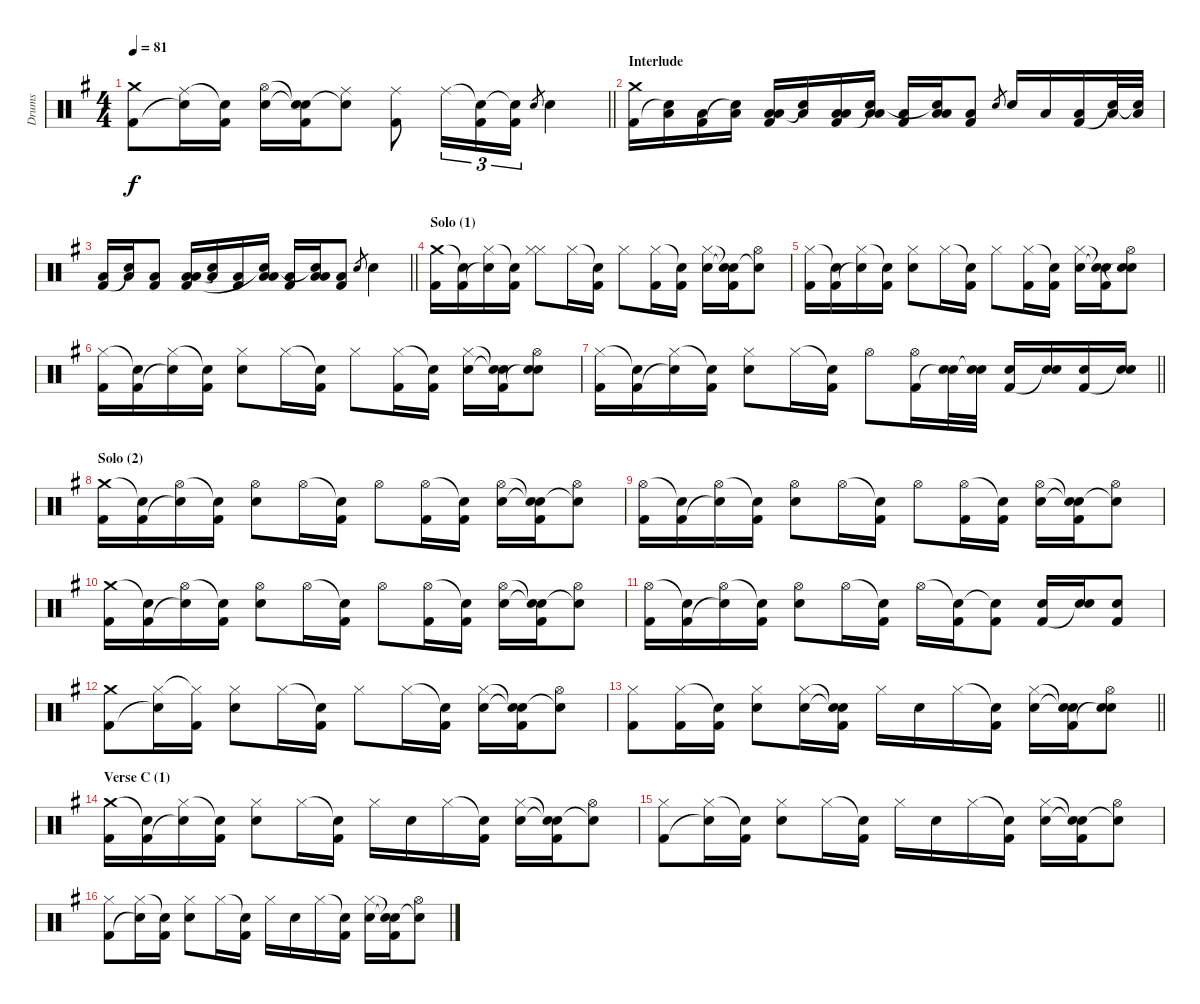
\track ("Drums" "Drums") {instrument percussion}
\staff {score}
\articulation defaults
\ts (4 4)
\tempo 81
\clef neutral
\barLineRight lightlight
\ks g
("Crash medium (hit)" "Kick (hit) 2").8{dy f} ("Ride (middle)" "Snare (hit)"{t}).16 ("Snare (hit)"{t} "Kick (hit) 2").16 ("Hi-Hat (open)" "Electric Snare (hit)").16 ("Snare (hit)"{t} "Snare (hit)"{t} "Kick (hit) 2").16 ("Ride (middle)" "Snare (hit)"{t}).8 ("Ride (middle)" "Kick (hit) 2").8 "Ride (middle)".16{tu (3 2)} ("Snare (hit)"{t} "Kick (hit) 2").16{tu (3 2)} ("Snare (hit)"{t} "Kick (hit) 2").16{tu (3 2)} "Electric Snare (hit)".8{gr} "Electric Snare (hit)".4 |
\section ("" "Interlude")
("Crash medium (hit)" "Kick (hit) 2").16 ("Low Floor Tom (hit)" "Snare (hit)"{t}).16 ("Low Floor Tom (hit)" "Kick (hit) 2").16 ("Low Floor Tom (hit)" "Snare (hit)"{t}).16 ("Low Tom (hit)" "Low Floor Tom (hit)" "Kick (hit) 2").16 ("Low Floor Tom (hit)" "Snare (hit)"{t}).16 ("Low Tom (hit)" "Low Floor Tom (hit)" "Kick (hit) 2").16 ("Low Tom (hit)" "Low Floor Tom (hit)" "Snare (hit)"{t}).16 ("Low Floor Tom (hit)" "Kick (hit) 2").16 ("Low Tom (hit)" "Low Floor Tom (hit)" "Snare (hit)"{t}).16 ("Low Floor Tom (hit)" "Kick (hit) 2").8 "Electric Snare (hit)".8{gr} "Electric Snare (hit)".16 "Low Floor Tom (hit)".16 ("Low Floor Tom (hit)" "Kick (hit) 2").16 ("Low Floor Tom (hit)" "Snare (hit)"{t}).32 ("Low Floor Tom (hit)" "Snare (hit)"{t}).32 |
\barLineRight lightlight
("Low Floor Tom (hit)" "Kick (hit) 2").16 ("Low Floor Tom (hit)" "Snare (hit)"{t}).16 ("Low Floor Tom (hit)" "Kick (hit) 2").8 ("Low Tom (hit)" "Low Floor Tom (hit)" "Kick (hit) 2").16 ("Low Floor Tom (hit)" "Snare (hit)"{t}).16 ("Low Floor Tom (hit)" "Kick (hit) 2").16 ("Low Tom (hit)" "Low Floor Tom (hit)" "Snare (hit)"{t}).16 ("Low Floor Tom (hit)" "Kick (hit) 2").16 ("Low Tom (hit)" "Low Floor Tom (hit)" "Snare (hit)"{t}).16 ("Low Floor Tom (hit)" "Kick (hit) 2").8 "Electric Snare (hit)".8{gr} "Electric Snare (hit)".4 |
\section ("" "Solo (1)")
("Crash medium (hit)" "Kick (hit) 2").16 ("Snare (hit)"{t} "Kick (hit) 2").16 ("Hi-Hat (closed)" "Snare (hit)"{t}).16 ("Snare (hit)"{t} "Kick (hit) 2").16 ("Hi-Hat (closed)" "Hi-Hat (closed)").8 "Hi-Hat (closed)".16 ("Snare (hit)"{t} "Kick (hit) 2").16 "Hi-Hat (closed)".8 ("Hi-Hat (closed)" "Kick (hit) 2").16 ("Snare (hit)"{t} "Kick (hit) 2").16 ("Hi-Hat (closed)" "Electric Snare (hit)").16 ("Snare (hit)"{t} "Snare (hit)"{t} "Kick (hit) 2").16 ("Hi-Hat (open)" "Snare (hit)"{t}).8 |
("Hi-Hat (closed)" "Kick (hit) 2").16 ("Snare (hit)"{t} "Kick (hit) 2").16 ("Hi-Hat (closed)" "Snare (hit)"{t}).16 ("Snare (hit)"{t} "Kick (hit) 2").16 ("Hi-Hat (closed)" "Electric Snare (hit)").8 "Hi-Hat (closed)".16 ("Snare (hit)"{t} "Kick (hit) 2").16 "Hi-Hat (closed)".8 ("Hi-Hat (closed)" "Kick (hit) 2").16 ("Snare (hit)"{t} "Kick (hit) 2").16 ("Hi-Hat (closed)" "Electric Snare (hit)").16 ("Snare (hit)"{t} "Snare (hit)"{t} "Kick (hit) 2").16 ("Hi-Hat (open)" "Electric Snare (hit)" "Snare (hit)"{t}).8 |
("Hi-Hat (closed)" "Kick (hit) 2").16 ("Snare (hit)"{t} "Kick (hit) 2").16 ("Hi-Hat (closed)" "Snare (hit)"{t}).16 ("Snare (hit)"{t} "Kick (hit) 2").16 ("Hi-Hat (closed)" "Electric Snare (hit)").8 "Hi-Hat (closed)".16 ("Snare (hit)"{t} "Kick (hit) 2").16 "Hi-Hat (closed)".8 ("Hi-Hat (closed)" "Kick (hit) 2").16 ("Snare (hit)"{t} "Kick (hit) 2").16 ("Hi-Hat (closed)" "Electric Snare (hit)").16 ("Snare (hit)"{t} "Snare (hit)"{t} "Kick (hit) 2").16 ("Hi-Hat (open)" "Electric Snare (hit)" "Snare (hit)"{t}).8 |
\barLineRight lightlight
("Hi-Hat (closed)" "Kick (hit) 2").16 ("Snare (hit)"{t} "Kick (hit) 2").16 ("Hi-Hat (closed)" "Snare (hit)"{t}).16 ("Snare (hit)"{t} "Kick (hit) 2").16 ("Hi-Hat (closed)" "Electric Snare (hit)").8 "Hi-Hat (closed)".16 ("Snare (hit)"{t} "Kick (hit) 2").16 "Hi-Hat (open)".8 ("Hi-Hat (open)" "Kick (hit) 2").16 ("Electric Snare (hit)" "Snare (hit)"{t}).32 ("Electric Snare (hit)" "Snare (hit)"{t}).32 ("Electric Snare (hit)" "Kick (hit) 2").16 ("Electric Snare (hit)" "Snare (hit)"{t}).16 ("Electric Snare (hit)" "Kick (hit) 2").16 ("Electric Snare (hit)" "Snare (hit)"{t}).16 |
\section ("" "Solo (2)")
("Crash medium (hit)" "Kick (hit) 2").16 ("Snare (hit)"{t} "Kick (hit) 2").16 ("Hi-Hat (open)" "Snare (hit)"{t}).16 ("Snare (hit)"{t} "Kick (hit) 2").16 ("Hi-Hat (open)" "Electric Snare (hit)").8 "Hi-Hat (open)".16 ("Snare (hit)"{t} "Kick (hit) 2").16 "Hi-Hat (open)".8 ("Hi-Hat (open)" "Kick (hit) 2").16 ("Snare (hit)"{t} "Kick (hit) 2").16 ("Hi-Hat (open)" "Electric Snare (hit)").16 ("Snare (hit)"{t} "Snare (hit)"{t} "Kick (hit) 2").16 ("Hi-Hat (open)" "Snare (hit)"{t}).8 |
("Hi-Hat (open)" "Kick (hit) 2").16 ("Snare (hit)"{t} "Kick (hit) 2").16 ("Hi-Hat (open)" "Snare (hit)"{t}).16 ("Snare (hit)"{t} "Kick (hit) 2").16 ("Hi-Hat (open)" "Electric Snare (hit)").8 "Hi-Hat (open)".16 ("Snare (hit)"{t} "Kick (hit) 2").16 "Hi-Hat (open)".8 ("Hi-Hat (open)" "Kick (hit) 2").16 ("Snare (hit)"{t} "Kick (hit) 2").16 ("Hi-Hat (open)" "Electric Snare (hit)").16 ("Snare (hit)"{t} "Snare (hit)"{t} "Kick (hit) 2").16 ("Hi-Hat (open)" "Snare (hit)"{t}).8 |
("Crash medium (hit)" "Kick (hit) 2").16 ("Snare (hit)"{t} "Kick (hit) 2").16 ("Hi-Hat (open)" "Snare (hit)"{t}).16 ("Snare (hit)"{t} "Kick (hit) 2").16 ("Hi-Hat (open)" "Electric Snare (hit)").8 "Hi-Hat (open)".16 ("Snare (hit)"{t} "Kick (hit) 2").16 "Hi-Hat (open)".8 ("Hi-Hat (open)" "Kick (hit) 2").16 ("Snare (hit)"{t} "Kick (hit) 2").16 ("Hi-Hat (open)" "Electric Snare (hit)").16 ("Snare (hit)"{t} "Snare (hit)"{t} "Kick (hit) 2").16 ("Hi-Hat (open)" "Snare (hit)"{t}).8 |
("Hi-Hat (open)" "Kick (hit) 2").16 ("Snare (hit)"{t} "Kick (hit) 2").16 ("Hi-Hat (open)" "Snare (hit)"{t}).16 ("Snare (hit)"{t} "Kick (hit) 2").16 ("Hi-Hat (open)" "Electric Snare (hit)").8 "Hi-Hat (open)".16 ("Snare (hit)"{t} "Kick (hit) 2").16 "Hi-Hat (open)".16 ("Snare (hit)"{t} "Kick (hit) 2").16 ("Snare (hit)"{t} "Kick (hit) 2").8 ("Electric Snare (hit)" "Kick (hit) 2").16 ("Electric Snare (hit)" "Snare (hit)"{t}).16 ("Electric Snare (hit)" "Kick (hit) 2").8 |
("Crash medium (hit)" "Kick (hit) 2").8 ("Hi-Hat (closed)" "Snare (hit)"{t}).16 ("Hi-Hat (closed)"{t} "Kick (hit) 2").16 ("Hi-Hat (closed)" "Electric Snare (hit)").8 "Hi-Hat (closed)".16 ("Snare (hit)"{t} "Kick (hit) 2").16 "Hi-Hat (closed)".8 "Hi-Hat (closed)".16 ("Snare (hit)"{t} "Kick (hit) 2").16 ("Hi-Hat (closed)" "Electric Snare (hit)").16 ("Snare (hit)"{t} "Snare (hit)"{t} "Kick (hit) 2").16 ("Hi-Hat (open)" "Snare (hit)"{t}).8 |
\barLineRight lightlight
("Hi-Hat (closed)" "Kick (hit) 2").8 ("Hi-Hat (closed)" "Kick (hit) 2").16 ("Snare (hit)"{t} "Kick (hit) 2").16 ("Hi-Hat (closed)" "Electric Snare (hit)").8 ("Hi-Hat (closed)" "Electric Snare (hit)").16 ("Snare (hit)"{t} "Snare (hit)"{t} "Kick (hit) 2").16 "Hi-Hat (closed)".16 "Electric Snare (hit)".16 "Hi-Hat (closed)".16 ("Snare (hit)"{t} "Kick (hit) 2").16 ("Hi-Hat (closed)" "Electric Snare (hit)").16 ("Snare (hit)"{t} "Snare (hit)"{t} "Kick (hit) 2").16 ("Hi-Hat (open)" "Electric Snare (hit)" "Snare (hit)"{t}).8 |
\section ("" "Verse C (1)")
("Crash medium (hit)" "Kick (hit) 2").16 ("Snare (hit)"{t} "Kick (hit) 2").16 ("Hi-Hat (closed)" "Snare (hit)"{t}).16 ("Snare (hit)"{t} "Kick (hit) 2").16 ("Hi-Hat (closed)" "Electric Snare (hit)").8 "Hi-Hat (closed)".16 ("Snare (hit)"{t} "Kick (hit) 2").16 "Hi-Hat (closed)".16 "Electric Snare (hit)".16 "Hi-Hat (closed)".16 ("Snare (hit)"{t} "Kick (hit) 2").16 ("Hi-Hat (closed)" "Electric Snare (hit)").16 ("Snare (hit)"{t} "Snare (hit)"{t} "Kick (hit) 2").16 ("Hi-Hat (open)" "Snare (hit)"{t}).8 |
("Hi-Hat (closed)" "Kick (hit) 2").8 ("Hi-Hat (closed)" "Snare (hit)"{t}).16 ("Snare (hit)"{t} "Kick (hit) 2").16 ("Hi-Hat (closed)" "Electric Snare (hit)").8 "Hi-Hat (closed)".16 ("Snare (hit)"{t} "Kick (hit) 2").16 "Hi-Hat (closed)".16 "Electric Snare (hit)".16 "Hi-Hat (closed)".16 ("Snare (hit)"{t} "Kick (hit) 2").16 ("Hi-Hat (closed)" "Electric Snare (hit)").16 ("Snare (hit)"{t} "Snare (hit)"{t} "Kick (hit) 2").16 ("Hi-Hat (open)" "Snare (hit)"{t}).8 |
("Hi-Hat (closed)" "Kick (hit) 2").8 ("Hi-Hat (closed)" "Snare (hit)"{t}).16 ("Snare (hit)"{t} "Kick (hit) 2").16 ("Hi-Hat (closed)" "Electric Snare (hit)").8 "Hi-Hat (closed)".16 ("Snare (hit)"{t} "Kick (hit) 2").16 "Hi-Hat (closed)".16 "Electric Snare (hit)".16 "Hi-Hat (closed)".16 ("Snare (hit)"{t} "Kick (hit) 2").16 ("Hi-Hat (closed)" "Electric Snare (hit)").16 ("Snare (hit)"{t} "Snare (hit)"{t} "Kick (hit) 2").16 ("Hi-Hat (open)" "Snare (hit)"{t}).8
